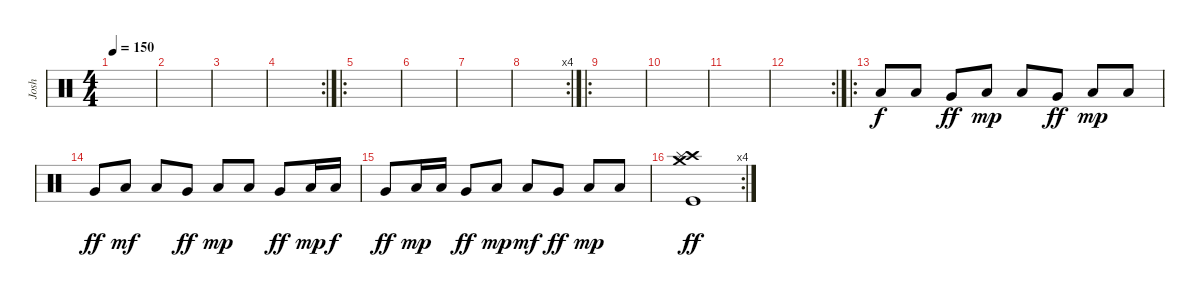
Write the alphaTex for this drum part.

\track ("Josh" "Josh") {instrument percussion}
\staff {score}
\articulation defaults
\ts (4 4)
\tempo 150
\clef neutral
\ks c
|
|
|
\rc 2
|
\ro
|
|
|
\rc 4
|
\ro
|
|
|
\rc 2
|
\ro "Low Floor Tom (hit)".8 "Low Floor Tom (hit)".8 "Very Low Tom (hit)".8{dy ff} "Low Floor Tom (hit)".8{dy mp} "Low Floor Tom (hit)".8 "Very Low Tom (hit)".8{dy ff} "Low Floor Tom (hit)".8{dy mp} "Low Floor Tom (hit)".8
|
"Very Low Tom (hit)".8{dy ff} "Low Floor Tom (hit)".8{dy mf} "Low Floor Tom (hit)".8 "Very Low Tom (hit)".8{dy ff} "Low Floor Tom (hit)".8{dy mp} "Low Floor Tom (hit)".8 "Very Low Tom (hit)".8{dy ff} "Low Floor Tom (hit)".16{dy mp} "Low Floor Tom (hit)".16{dy f} |
"Very Low Tom (hit)".8{dy ff} "Low Floor Tom (hit)".16{dy mp} "Low Floor Tom (hit)".16 "Very Low Tom (hit)".8{dy ff} "Low Floor Tom (hit)".8{dy mp} "Low Floor Tom (hit)".8{dy mf} "Very Low Tom (hit)".8{dy ff} "Low Floor Tom (hit)".8{dy mp} "Low Floor Tom (hit)".8 |
\rc 4
("Crash high (hit)" "Kick (hit)" "Splash (hit)" "Crash medium (hit)").1{dy ff}
